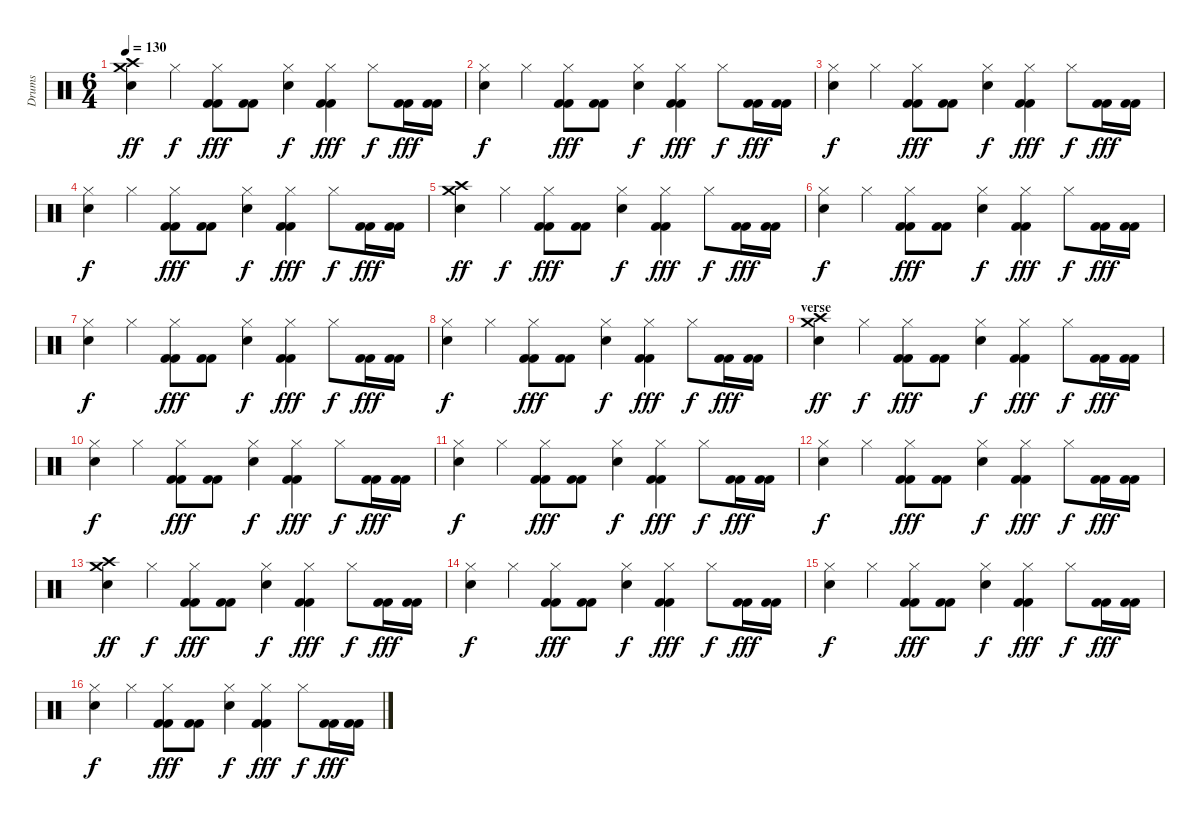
\track ("Drums" "Drums") {instrument percussion}
\staff {score}
\articulation defaults
\ts (6 4)
\tempo 130
\clef neutral
\ks c
("Crash high (hit)" "Crash medium (hit)" "Electric Snare (hit)").4{dy ff} "Hi-Hat (closed)".4{dy f} ("Hi-Hat (closed)" "Kick (hit) 2" "Kick (hit) 2").8{dy fff} ("Kick (hit) 2" "Kick (hit) 2").8 ("Hi-Hat (closed)" "Electric Snare (hit)").4{dy f} ("Hi-Hat (closed)" "Kick (hit) 2" "Kick (hit) 2").4{dy fff} "Hi-Hat (closed)".8{dy f} ("Kick (hit) 2" "Kick (hit) 2").16{dy fff} ("Kick (hit) 2" "Kick (hit) 2").16 |
("Hi-Hat (closed)" "Electric Snare (hit)").4{dy f} "Hi-Hat (closed)".4 ("Hi-Hat (closed)" "Kick (hit) 2" "Kick (hit) 2").8{dy fff} ("Kick (hit) 2" "Kick (hit) 2").8 ("Hi-Hat (closed)" "Electric Snare (hit)").4{dy f} ("Hi-Hat (closed)" "Kick (hit) 2" "Kick (hit) 2").4{dy fff} "Hi-Hat (closed)".8{dy f} ("Kick (hit) 2" "Kick (hit) 2").16{dy fff} ("Kick (hit) 2" "Kick (hit) 2").16 |
("Hi-Hat (closed)" "Electric Snare (hit)").4{dy f} "Hi-Hat (closed)".4 ("Hi-Hat (closed)" "Kick (hit) 2" "Kick (hit) 2").8{dy fff} ("Kick (hit) 2" "Kick (hit) 2").8 ("Hi-Hat (closed)" "Electric Snare (hit)").4{dy f} ("Hi-Hat (closed)" "Kick (hit) 2" "Kick (hit) 2").4{dy fff} "Hi-Hat (closed)".8{dy f} ("Kick (hit) 2" "Kick (hit) 2").16{dy fff} ("Kick (hit) 2" "Kick (hit) 2").16 |
("Hi-Hat (closed)" "Electric Snare (hit)").4{dy f} "Hi-Hat (closed)".4 ("Hi-Hat (closed)" "Kick (hit) 2" "Kick (hit) 2").8{dy fff} ("Kick (hit) 2" "Kick (hit) 2").8 ("Hi-Hat (closed)" "Electric Snare (hit)").4{dy f} ("Hi-Hat (closed)" "Kick (hit) 2" "Kick (hit) 2").4{dy fff} "Hi-Hat (closed)".8{dy f} ("Kick (hit) 2" "Kick (hit) 2").16{dy fff} ("Kick (hit) 2" "Kick (hit) 2").16 |
("Crash high (hit)" "Crash medium (hit)" "Electric Snare (hit)").4{dy ff} "Hi-Hat (closed)".4{dy f} ("Hi-Hat (closed)" "Kick (hit) 2" "Kick (hit) 2").8{dy fff} ("Kick (hit) 2" "Kick (hit) 2").8 ("Hi-Hat (closed)" "Electric Snare (hit)").4{dy f} ("Hi-Hat (closed)" "Kick (hit) 2" "Kick (hit) 2").4{dy fff} "Hi-Hat (closed)".8{dy f} ("Kick (hit) 2" "Kick (hit) 2").16{dy fff} ("Kick (hit) 2" "Kick (hit) 2").16 |
("Hi-Hat (closed)" "Electric Snare (hit)").4{dy f} "Hi-Hat (closed)".4 ("Hi-Hat (closed)" "Kick (hit) 2" "Kick (hit) 2").8{dy fff} ("Kick (hit) 2" "Kick (hit) 2").8 ("Hi-Hat (closed)" "Electric Snare (hit)").4{dy f} ("Hi-Hat (closed)" "Kick (hit) 2" "Kick (hit) 2").4{dy fff} "Hi-Hat (closed)".8{dy f} ("Kick (hit) 2" "Kick (hit) 2").16{dy fff} ("Kick (hit) 2" "Kick (hit) 2").16 |
("Hi-Hat (closed)" "Electric Snare (hit)").4{dy f} "Hi-Hat (closed)".4 ("Hi-Hat (closed)" "Kick (hit) 2" "Kick (hit) 2").8{dy fff} ("Kick (hit) 2" "Kick (hit) 2").8 ("Hi-Hat (closed)" "Electric Snare (hit)").4{dy f} ("Hi-Hat (closed)" "Kick (hit) 2" "Kick (hit) 2").4{dy fff} "Hi-Hat (closed)".8{dy f} ("Kick (hit) 2" "Kick (hit) 2").16{dy fff} ("Kick (hit) 2" "Kick (hit) 2").16 |
("Hi-Hat (closed)" "Electric Snare (hit)").4{dy f} "Hi-Hat (closed)".4 ("Hi-Hat (closed)" "Kick (hit) 2" "Kick (hit) 2").8{dy fff} ("Kick (hit) 2" "Kick (hit) 2").8 ("Hi-Hat (closed)" "Electric Snare (hit)").4{dy f} ("Hi-Hat (closed)" "Kick (hit) 2" "Kick (hit) 2").4{dy fff} "Hi-Hat (closed)".8{dy f} ("Kick (hit) 2" "Kick (hit) 2").16{dy fff} ("Kick (hit) 2" "Kick (hit) 2").16 |
\section ("" "verse")
("Crash high (hit)" "Crash medium (hit)" "Electric Snare (hit)").4{dy ff} "Hi-Hat (closed)".4{dy f} ("Hi-Hat (closed)" "Kick (hit) 2" "Kick (hit) 2").8{dy fff} ("Kick (hit) 2" "Kick (hit) 2").8 ("Hi-Hat (closed)" "Electric Snare (hit)").4{dy f} ("Hi-Hat (closed)" "Kick (hit) 2" "Kick (hit) 2").4{dy fff} "Hi-Hat (closed)".8{dy f} ("Kick (hit) 2" "Kick (hit) 2").16{dy fff} ("Kick (hit) 2" "Kick (hit) 2").16 |
("Hi-Hat (closed)" "Electric Snare (hit)").4{dy f} "Hi-Hat (closed)".4 ("Hi-Hat (closed)" "Kick (hit) 2" "Kick (hit) 2").8{dy fff} ("Kick (hit) 2" "Kick (hit) 2").8 ("Hi-Hat (closed)" "Electric Snare (hit)").4{dy f} ("Hi-Hat (closed)" "Kick (hit) 2" "Kick (hit) 2").4{dy fff} "Hi-Hat (closed)".8{dy f} ("Kick (hit) 2" "Kick (hit) 2").16{dy fff} ("Kick (hit) 2" "Kick (hit) 2").16 |
("Hi-Hat (closed)" "Electric Snare (hit)").4{dy f} "Hi-Hat (closed)".4 ("Hi-Hat (closed)" "Kick (hit) 2" "Kick (hit) 2").8{dy fff} ("Kick (hit) 2" "Kick (hit) 2").8 ("Hi-Hat (closed)" "Electric Snare (hit)").4{dy f} ("Hi-Hat (closed)" "Kick (hit) 2" "Kick (hit) 2").4{dy fff} "Hi-Hat (closed)".8{dy f} ("Kick (hit) 2" "Kick (hit) 2").16{dy fff} ("Kick (hit) 2" "Kick (hit) 2").16 |
("Hi-Hat (closed)" "Electric Snare (hit)").4{dy f} "Hi-Hat (closed)".4 ("Hi-Hat (closed)" "Kick (hit) 2" "Kick (hit) 2").8{dy fff} ("Kick (hit) 2" "Kick (hit) 2").8 ("Hi-Hat (closed)" "Electric Snare (hit)").4{dy f} ("Hi-Hat (closed)" "Kick (hit) 2" "Kick (hit) 2").4{dy fff} "Hi-Hat (closed)".8{dy f} ("Kick (hit) 2" "Kick (hit) 2").16{dy fff} ("Kick (hit) 2" "Kick (hit) 2").16 |
("Crash high (hit)" "Crash medium (hit)" "Electric Snare (hit)").4{dy ff} "Hi-Hat (closed)".4{dy f} ("Hi-Hat (closed)" "Kick (hit) 2" "Kick (hit) 2").8{dy fff} ("Kick (hit) 2" "Kick (hit) 2").8 ("Hi-Hat (closed)" "Electric Snare (hit)").4{dy f} ("Hi-Hat (closed)" "Kick (hit) 2" "Kick (hit) 2").4{dy fff} "Hi-Hat (closed)".8{dy f} ("Kick (hit) 2" "Kick (hit) 2").16{dy fff} ("Kick (hit) 2" "Kick (hit) 2").16 |
("Hi-Hat (closed)" "Electric Snare (hit)").4{dy f} "Hi-Hat (closed)".4 ("Hi-Hat (closed)" "Kick (hit) 2" "Kick (hit) 2").8{dy fff} ("Kick (hit) 2" "Kick (hit) 2").8 ("Hi-Hat (closed)" "Electric Snare (hit)").4{dy f} ("Hi-Hat (closed)" "Kick (hit) 2" "Kick (hit) 2").4{dy fff} "Hi-Hat (closed)".8{dy f} ("Kick (hit) 2" "Kick (hit) 2").16{dy fff} ("Kick (hit) 2" "Kick (hit) 2").16 |
("Hi-Hat (closed)" "Electric Snare (hit)").4{dy f} "Hi-Hat (closed)".4 ("Hi-Hat (closed)" "Kick (hit) 2" "Kick (hit) 2").8{dy fff} ("Kick (hit) 2" "Kick (hit) 2").8 ("Hi-Hat (closed)" "Electric Snare (hit)").4{dy f} ("Hi-Hat (closed)" "Kick (hit) 2" "Kick (hit) 2").4{dy fff} "Hi-Hat (closed)".8{dy f} ("Kick (hit) 2" "Kick (hit) 2").16{dy fff} ("Kick (hit) 2" "Kick (hit) 2").16 |
("Hi-Hat (closed)" "Electric Snare (hit)").4{dy f} "Hi-Hat (closed)".4 ("Hi-Hat (closed)" "Kick (hit) 2" "Kick (hit) 2").8{dy fff} ("Kick (hit) 2" "Kick (hit) 2").8 ("Hi-Hat (closed)" "Electric Snare (hit)").4{dy f} ("Hi-Hat (closed)" "Kick (hit) 2" "Kick (hit) 2").4{dy fff} "Hi-Hat (closed)".8{dy f} ("Kick (hit) 2" "Kick (hit) 2").16{dy fff} ("Kick (hit) 2" "Kick (hit) 2").16
